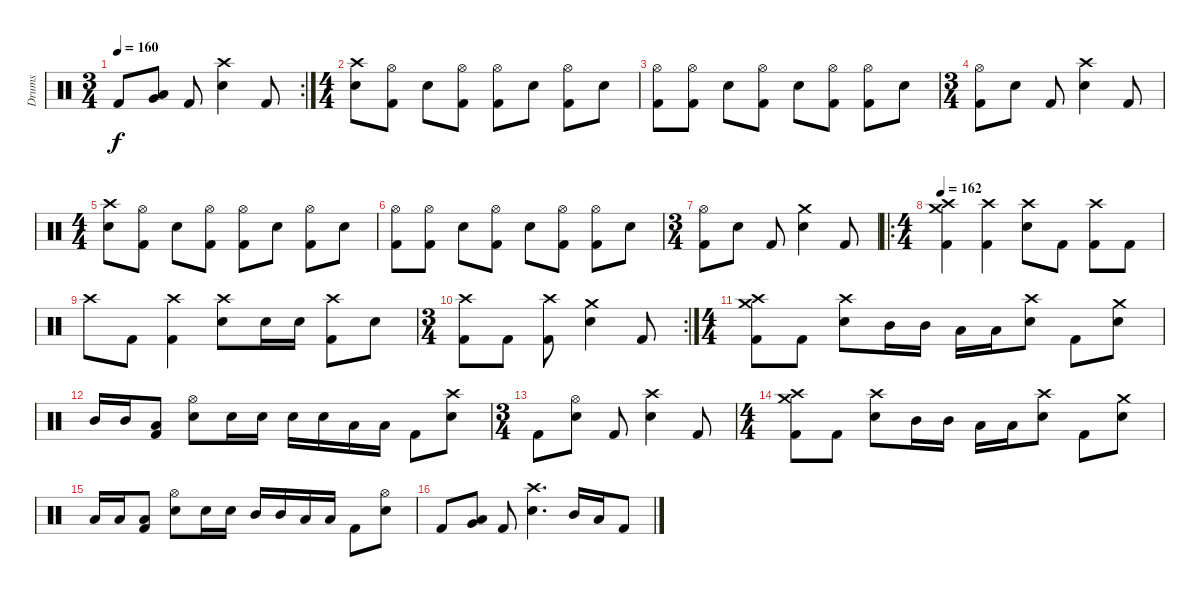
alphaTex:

\track ("Drums" "Drums") {instrument percussion}
\staff {score}
\articulation defaults
\rc 2
\ts (3 4)
\tempo 160
\clef neutral
\ks c "Kick (hit) 2".8{dy f}
("Very Low Tom (hit)" "Low Floor Tom (hit)").8 "Kick (hit) 2".8 ("Crash high (hit)" "Electric Snare (hit)").4 "Kick (hit) 2".8 |
\ts (4 4)
("Crash high (hit)" "Electric Snare (hit)").8 ("Hi-Hat (open)" "Kick (hit) 2").8 "Electric Snare (hit)".8 ("Hi-Hat (open)" "Kick (hit) 2").8 ("Hi-Hat (open)" "Kick (hit) 2").8 "Electric Snare (hit)".8 ("Hi-Hat (open)" "Kick (hit) 2").8 "Electric Snare (hit)".8 |
("Hi-Hat (open)" "Kick (hit) 2").8 ("Hi-Hat (open)" "Kick (hit) 2").8 "Electric Snare (hit)".8 ("Hi-Hat (open)" "Kick (hit) 2").8 "Electric Snare (hit)".8 ("Hi-Hat (open)" "Kick (hit) 2").8 ("Hi-Hat (open)" "Kick (hit) 2").8 "Electric Snare (hit)".8 |
\ts (3 4)
("Hi-Hat (open)" "Kick (hit) 2").8 "Electric Snare (hit)".8 "Kick (hit) 2".8 ("Crash high (hit)" "Electric Snare (hit)").4 "Kick (hit) 2".8 |
\ts (4 4)
("Crash high (hit)" "Electric Snare (hit)").8 ("Hi-Hat (open)" "Kick (hit) 2").8 "Electric Snare (hit)".8 ("Hi-Hat (open)" "Kick (hit) 2").8 ("Hi-Hat (open)" "Kick (hit) 2").8 "Electric Snare (hit)".8 ("Hi-Hat (open)" "Kick (hit) 2").8 "Electric Snare (hit)".8 |
("Hi-Hat (open)" "Kick (hit) 2").8 ("Hi-Hat (open)" "Kick (hit) 2").8 "Electric Snare (hit)".8 ("Hi-Hat (open)" "Kick (hit) 2").8 "Electric Snare (hit)".8 ("Hi-Hat (open)" "Kick (hit) 2").8 ("Hi-Hat (open)" "Kick (hit) 2").8 "Electric Snare (hit)".8 |
\ts (3 4)
("Hi-Hat (open)" "Kick (hit) 2").8 "Electric Snare (hit)".8 "Kick (hit) 2".8 ("Crash medium (hit)" "Electric Snare (hit)").4 "Kick (hit) 2".8 |
\ro
\ts (4 4)
\tempo 162
("Crash medium (hit)" "Crash high (hit)" "Kick (hit) 2").4 ("Crash high (hit)" "Kick (hit) 2").4 ("Crash high (hit)" "Electric Snare (hit)").8 "Kick (hit) 2".8 ("Crash high (hit)" "Kick (hit) 2").8 "Kick (hit) 2".8 |
"Crash high (hit)".8 "Kick (hit) 2".8 ("Crash high (hit)" "Kick (hit) 2").4 ("Crash high (hit)" "Electric Snare (hit)").8 "Electric Snare (hit)".16 "Electric Snare (hit)".16 ("Crash high (hit)" "Kick (hit) 2").8 "Electric Snare (hit)".8 |
\rc 2
\ts (3 4)
("Crash high (hit)" "Kick (hit) 2").8 "Kick (hit) 2".8 ("Crash high (hit)" "Kick (hit) 2").8 ("Crash medium (hit)" "Electric Snare (hit)").4 "Kick (hit) 2".8 |
\ts (4 4)
("Crash medium (hit)" "Crash high (hit)" "Kick (hit) 2").8 "Kick (hit) 2".8 ("Crash high (hit)" "Electric Snare (hit)").8 "Mid Tom (hit)".16 "Mid Tom (hit)".16 "Low Tom (hit)".16 "Low Tom (hit)".16 ("Crash high (hit)" "Electric Snare (hit)").8 "Kick (hit) 2".8 ("Crash medium (hit)" "Electric Snare (hit)").8 |
"Mid Tom (hit)".16 "Mid Tom (hit)".16 ("Low Tom (hit)" "Kick (hit) 2").8 ("Hi-Hat (open)" "Electric Snare (hit)").8 "Electric Snare (hit)".16 "Electric Snare (hit)".16 "Electric Snare (hit)".16 "Electric Snare (hit)".16 "Low Tom (hit)".16 "Low Tom (hit)".16 "Kick (hit) 2".8 ("Crash high (hit)" "Electric Snare (hit)").8 |
\ts (3 4)
"Kick (hit) 2".8 ("Hi-Hat (open)" "Electric Snare (hit)").8 "Kick (hit) 2".8 ("Crash high (hit)" "Electric Snare (hit)").4 "Kick (hit) 2".8 |
\ts (4 4)
("Crash medium (hit)" "Crash high (hit)" "Kick (hit) 2").8 "Kick (hit) 2".8 ("Crash high (hit)" "Electric Snare (hit)").8 "Mid Tom (hit)".16 "Mid Tom (hit)".16 "Low Tom (hit)".16 "Low Tom (hit)".16 ("Crash high (hit)" "Electric Snare (hit)").8 "Kick (hit) 2".8 ("Crash medium (hit)" "Electric Snare (hit)").8 |
"Low Tom (hit)".16 "Low Tom (hit)".16 ("Low Tom (hit)" "Kick (hit) 2").8 ("Hi-Hat (open)" "Electric Snare (hit)").8 "Electric Snare (hit)".16 "Electric Snare (hit)".16 "Mid Tom (hit)".16 "Mid Tom (hit)".16 "Low Tom (hit)".16 "Low Tom (hit)".16 "Kick (hit) 2".8 ("Hi-Hat (open)" "Electric Snare (hit)").8 |
"Kick (hit) 2".8 ("Low Tom (hit)" "Very Low Tom (hit)").8 "Kick (hit) 2".8 ("Crash high (hit)" "Electric Snare (hit)").4{d} "Mid Tom (hit)".16 "Low Tom (hit)".16 "Kick (hit) 2".8
